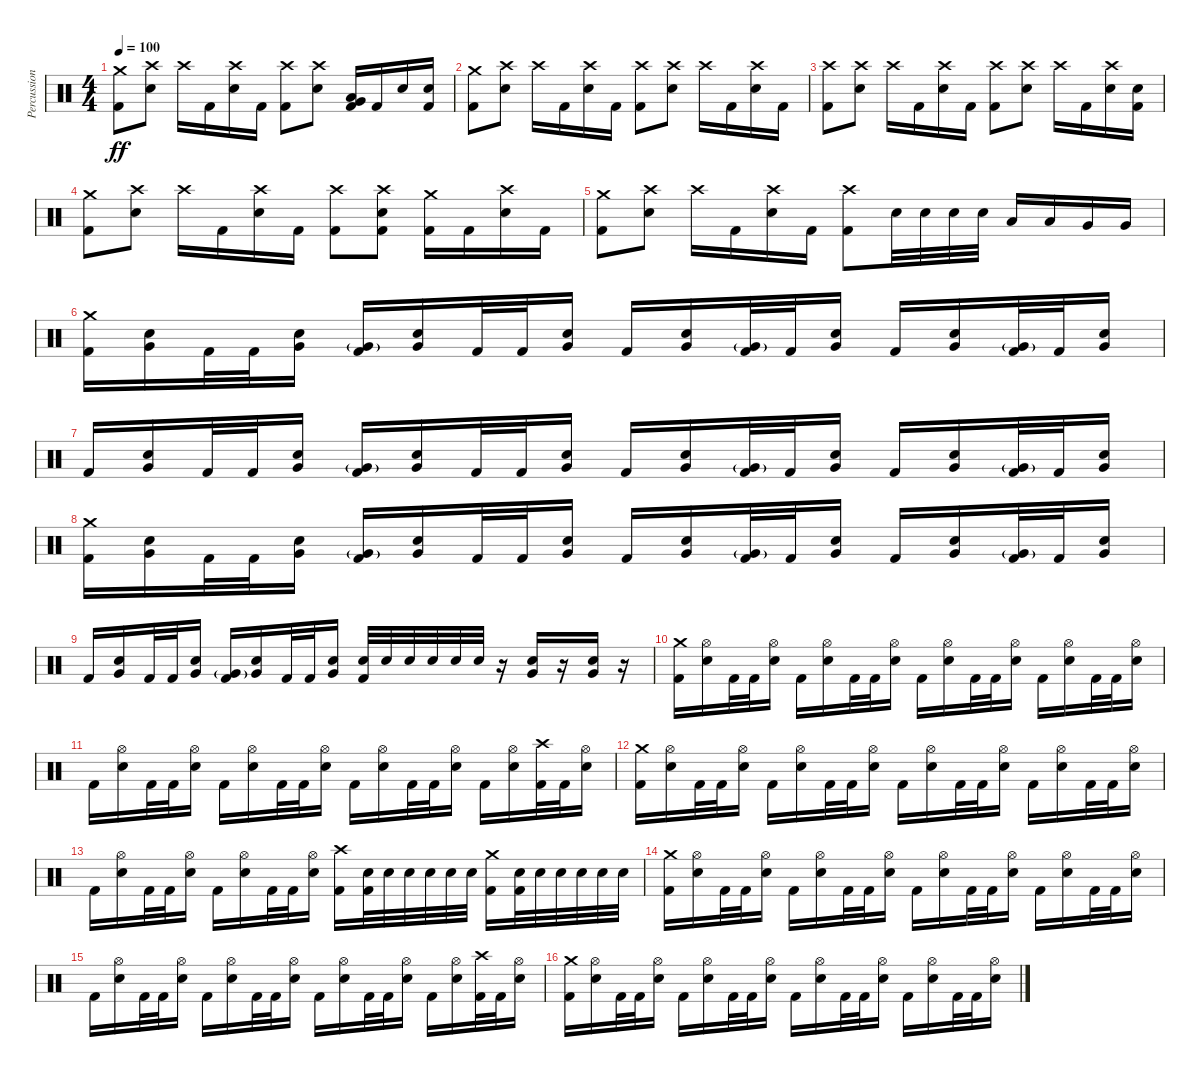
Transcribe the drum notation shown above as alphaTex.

\track ("Percussion" "Percussion") {instrument percussion}
\staff {score}
\articulation defaults
\ts (4 4)
\tempo 100
\clef neutral
\ks c
("Crash medium (hit)" "Kick (hit) 2").8{dy ff} ("Crash high (hit)" "Electric Snare (hit)").8 "Crash high (hit)".16 "Kick (hit) 2".16 ("Crash high (hit)" "Electric Snare (hit)").16 "Kick (hit) 2".16 ("Crash high (hit)" "Kick (hit) 2").8 ("Crash high (hit)" "Electric Snare (hit)").8 ("Low Tom (hit)" "Very Low Tom (hit)" "Kick (hit) 2").16 "Kick (hit) 2".16 "Electric Snare (hit)".16 ("Electric Snare (hit)" "Kick (hit) 2").16 |
("Crash medium (hit)" "Kick (hit) 2").8 ("Crash high (hit)" "Electric Snare (hit)").8 "Crash high (hit)".16 "Kick (hit) 2".16 ("Crash high (hit)" "Electric Snare (hit)").16 "Kick (hit) 2".16 ("Crash high (hit)" "Kick (hit) 2").8 ("Crash high (hit)" "Electric Snare (hit)").8 "Crash high (hit)".16 "Kick (hit) 2".16 ("Crash high (hit)" "Electric Snare (hit)").16 "Kick (hit) 2".16 |
("Crash high (hit)" "Kick (hit) 2").8 ("Crash high (hit)" "Electric Snare (hit)").8 "Crash high (hit)".16 "Kick (hit) 2".16 ("Crash high (hit)" "Electric Snare (hit)").16 "Kick (hit) 2".16 ("Crash high (hit)" "Kick (hit) 2").8 ("Crash high (hit)" "Electric Snare (hit)").8 "Crash high (hit)".16 "Kick (hit) 2".16 ("Crash high (hit)" "Electric Snare (hit)").16 ("Electric Snare (hit)" "Kick (hit) 2").16 |
("Crash medium (hit)" "Kick (hit) 2").8 ("Crash high (hit)" "Electric Snare (hit)").8 "Crash high (hit)".16 "Kick (hit) 2".16 ("Crash high (hit)" "Electric Snare (hit)").16 "Kick (hit) 2".16 ("Crash high (hit)" "Kick (hit) 2").8 ("Crash high (hit)" "Electric Snare (hit)" "Kick (hit) 2").8 ("Crash medium (hit)" "Kick (hit) 2").16 "Kick (hit) 2".16 ("Crash high (hit)" "Electric Snare (hit)").16 "Kick (hit) 2".16 |
("Crash medium (hit)" "Kick (hit) 2").8 ("Crash high (hit)" "Electric Snare (hit)").8 "Crash high (hit)".16 "Kick (hit) 2".16 ("Crash high (hit)" "Electric Snare (hit)").16 "Kick (hit) 2".16 ("Crash high (hit)" "Kick (hit) 2").8 "Electric Snare (hit)".32 "Electric Snare (hit)".32 "Electric Snare (hit)".32 "Electric Snare (hit)".32 "Low Tom (hit)".16 "Low Tom (hit)".16 "Very Low Tom (hit)".16 "Very Low Tom (hit)".16 |
("Crash medium (hit)" "Kick (hit) 2").16 ("Very Low Tom (hit)" "Electric Snare (hit)").16 "Kick (hit) 2".32 "Kick (hit) 2".32 ("Very Low Tom (hit)" "Electric Snare (hit)").16 ("Very Low Tom (hit)"{g} "Kick (hit) 2").16 ("Very Low Tom (hit)" "Electric Snare (hit)").16 "Kick (hit) 2".32 "Kick (hit) 2".32 ("Very Low Tom (hit)" "Electric Snare (hit)").16 "Kick (hit) 2".16 ("Very Low Tom (hit)" "Electric Snare (hit)").16 ("Very Low Tom (hit)"{g} "Kick (hit) 2").32 "Kick (hit) 2".32 ("Very Low Tom (hit)" "Electric Snare (hit)").16 "Kick (hit) 2".16 ("Very Low Tom (hit)" "Electric Snare (hit)").16 ("Very Low Tom (hit)"{g} "Kick (hit) 2").32 "Kick (hit) 2".32 ("Very Low Tom (hit)" "Electric Snare (hit)").16 |
"Kick (hit) 2".16 ("Very Low Tom (hit)" "Electric Snare (hit)").16 "Kick (hit) 2".32 "Kick (hit) 2".32 ("Very Low Tom (hit)" "Electric Snare (hit)").16 ("Very Low Tom (hit)"{g} "Kick (hit) 2").16 ("Very Low Tom (hit)" "Electric Snare (hit)").16 "Kick (hit) 2".32 "Kick (hit) 2".32 ("Very Low Tom (hit)" "Electric Snare (hit)").16 "Kick (hit) 2".16 ("Very Low Tom (hit)" "Electric Snare (hit)").16 ("Very Low Tom (hit)"{g} "Kick (hit) 2").32 "Kick (hit) 2".32 ("Very Low Tom (hit)" "Electric Snare (hit)").16 "Kick (hit) 2".16 ("Very Low Tom (hit)" "Electric Snare (hit)").16 ("Very Low Tom (hit)"{g} "Kick (hit) 2").32 "Kick (hit) 2".32 ("Very Low Tom (hit)" "Electric Snare (hit)").16 |
("Crash medium (hit)" "Kick (hit) 2").16 ("Very Low Tom (hit)" "Electric Snare (hit)").16 "Kick (hit) 2".32 "Kick (hit) 2".32 ("Very Low Tom (hit)" "Electric Snare (hit)").16 ("Very Low Tom (hit)"{g} "Kick (hit) 2").16 ("Very Low Tom (hit)" "Electric Snare (hit)").16 "Kick (hit) 2".32 "Kick (hit) 2".32 ("Very Low Tom (hit)" "Electric Snare (hit)").16 "Kick (hit) 2".16 ("Very Low Tom (hit)" "Electric Snare (hit)").16 ("Very Low Tom (hit)"{g} "Kick (hit) 2").32 "Kick (hit) 2".32 ("Very Low Tom (hit)" "Electric Snare (hit)").16 "Kick (hit) 2".16 ("Very Low Tom (hit)" "Electric Snare (hit)").16 ("Very Low Tom (hit)"{g} "Kick (hit) 2").32 "Kick (hit) 2".32 ("Very Low Tom (hit)" "Electric Snare (hit)").16 |
"Kick (hit) 2".16 ("Very Low Tom (hit)" "Electric Snare (hit)").16 "Kick (hit) 2".32 "Kick (hit) 2".32 ("Very Low Tom (hit)" "Electric Snare (hit)").16 ("Very Low Tom (hit)"{g} "Kick (hit) 2").16 ("Very Low Tom (hit)" "Electric Snare (hit)").16 "Kick (hit) 2".32 "Kick (hit) 2".32 ("Very Low Tom (hit)" "Electric Snare (hit)").16 ("Electric Snare (hit)" "Kick (hit) 2").32 "Electric Snare (hit)".32 "Electric Snare (hit)".32 "Electric Snare (hit)".32 "Electric Snare (hit)".32 "Electric Snare (hit)".32 r.16 ("Electric Snare (hit)" "Very Low Tom (hit)").16 r.16 ("Electric Snare (hit)" "Very Low Tom (hit)").16 r.16 |
("Crash medium (hit)" "Kick (hit) 2").16 ("Hi-Hat (open)" "Electric Snare (hit)").16 "Kick (hit) 2".32 "Kick (hit) 2".32 ("Hi-Hat (open)" "Electric Snare (hit)").16 "Kick (hit) 2".16 ("Hi-Hat (open)" "Electric Snare (hit)").16 "Kick (hit) 2".32 "Kick (hit) 2".32 ("Hi-Hat (open)" "Electric Snare (hit)").16 "Kick (hit) 2".16 ("Hi-Hat (open)" "Electric Snare (hit)").16 "Kick (hit) 2".32 "Kick (hit) 2".32 ("Hi-Hat (open)" "Electric Snare (hit)").16 "Kick (hit) 2".16 ("Hi-Hat (open)" "Electric Snare (hit)").16 "Kick (hit) 2".32 "Kick (hit) 2".32 ("Hi-Hat (open)" "Electric Snare (hit)").16 |
"Kick (hit) 2".16 ("Hi-Hat (open)" "Electric Snare (hit)").16 "Kick (hit) 2".32 "Kick (hit) 2".32 ("Hi-Hat (open)" "Electric Snare (hit)").16 "Kick (hit) 2".16 ("Hi-Hat (open)" "Electric Snare (hit)").16 "Kick (hit) 2".32 "Kick (hit) 2".32 ("Hi-Hat (open)" "Electric Snare (hit)").16 "Kick (hit) 2".16 ("Hi-Hat (open)" "Electric Snare (hit)").16 "Kick (hit) 2".32 "Kick (hit) 2".32 ("Hi-Hat (open)" "Electric Snare (hit)").16 "Kick (hit) 2".16 ("Hi-Hat (open)" "Electric Snare (hit)").16 ("Crash high (hit)" "Kick (hit) 2").32 "Kick (hit) 2".32 ("Hi-Hat (open)" "Electric Snare (hit)").16 |
("Crash medium (hit)" "Kick (hit) 2").16 ("Hi-Hat (open)" "Electric Snare (hit)").16 "Kick (hit) 2".32 "Kick (hit) 2".32 ("Hi-Hat (open)" "Electric Snare (hit)").16 "Kick (hit) 2".16 ("Hi-Hat (open)" "Electric Snare (hit)").16 "Kick (hit) 2".32 "Kick (hit) 2".32 ("Hi-Hat (open)" "Electric Snare (hit)").16 "Kick (hit) 2".16 ("Hi-Hat (open)" "Electric Snare (hit)").16 "Kick (hit) 2".32 "Kick (hit) 2".32 ("Hi-Hat (open)" "Electric Snare (hit)").16 "Kick (hit) 2".16 ("Hi-Hat (open)" "Electric Snare (hit)").16 "Kick (hit) 2".32 "Kick (hit) 2".32 ("Hi-Hat (open)" "Electric Snare (hit)").16 |
"Kick (hit) 2".16 ("Hi-Hat (open)" "Electric Snare (hit)").16 "Kick (hit) 2".32 "Kick (hit) 2".32 ("Hi-Hat (open)" "Electric Snare (hit)").16 "Kick (hit) 2".16 ("Hi-Hat (open)" "Electric Snare (hit)").16 "Kick (hit) 2".32 "Kick (hit) 2".32 ("Hi-Hat (open)" "Electric Snare (hit)").16 ("Crash high (hit)" "Kick (hit) 2").16 ("Electric Snare (hit)" "Kick (hit) 2").32 "Electric Snare (hit)".32 "Electric Snare (hit)".32 "Electric Snare (hit)".32 "Electric Snare (hit)".32 "Electric Snare (hit)".32 ("Crash medium (hit)" "Kick (hit) 2").16 ("Electric Snare (hit)" "Kick (hit) 2").32 "Electric Snare (hit)".32 "Electric Snare (hit)".32 "Electric Snare (hit)".32 "Electric Snare (hit)".32 "Electric Snare (hit)".32 |
("Crash medium (hit)" "Kick (hit) 2").16 ("Hi-Hat (open)" "Electric Snare (hit)").16 "Kick (hit) 2".32 "Kick (hit) 2".32 ("Hi-Hat (open)" "Electric Snare (hit)").16 "Kick (hit) 2".16 ("Hi-Hat (open)" "Electric Snare (hit)").16 "Kick (hit) 2".32 "Kick (hit) 2".32 ("Hi-Hat (open)" "Electric Snare (hit)").16 "Kick (hit) 2".16 ("Hi-Hat (open)" "Electric Snare (hit)").16 "Kick (hit) 2".32 "Kick (hit) 2".32 ("Hi-Hat (open)" "Electric Snare (hit)").16 "Kick (hit) 2".16 ("Hi-Hat (open)" "Electric Snare (hit)").16 "Kick (hit) 2".32 "Kick (hit) 2".32 ("Hi-Hat (open)" "Electric Snare (hit)").16 |
"Kick (hit) 2".16 ("Hi-Hat (open)" "Electric Snare (hit)").16 "Kick (hit) 2".32 "Kick (hit) 2".32 ("Hi-Hat (open)" "Electric Snare (hit)").16 "Kick (hit) 2".16 ("Hi-Hat (open)" "Electric Snare (hit)").16 "Kick (hit) 2".32 "Kick (hit) 2".32 ("Hi-Hat (open)" "Electric Snare (hit)").16 "Kick (hit) 2".16 ("Hi-Hat (open)" "Electric Snare (hit)").16 "Kick (hit) 2".32 "Kick (hit) 2".32 ("Hi-Hat (open)" "Electric Snare (hit)").16 "Kick (hit) 2".16 ("Hi-Hat (open)" "Electric Snare (hit)").16 ("Crash high (hit)" "Kick (hit) 2").32 "Kick (hit) 2".32 ("Hi-Hat (open)" "Electric Snare (hit)").16 |
("Crash medium (hit)" "Kick (hit) 2").16 ("Hi-Hat (open)" "Electric Snare (hit)").16 "Kick (hit) 2".32 "Kick (hit) 2".32 ("Hi-Hat (open)" "Electric Snare (hit)").16 "Kick (hit) 2".16 ("Hi-Hat (open)" "Electric Snare (hit)").16 "Kick (hit) 2".32 "Kick (hit) 2".32 ("Hi-Hat (open)" "Electric Snare (hit)").16 "Kick (hit) 2".16 ("Hi-Hat (open)" "Electric Snare (hit)").16 "Kick (hit) 2".32 "Kick (hit) 2".32 ("Hi-Hat (open)" "Electric Snare (hit)").16 "Kick (hit) 2".16 ("Hi-Hat (open)" "Electric Snare (hit)").16 "Kick (hit) 2".32 "Kick (hit) 2".32 ("Hi-Hat (open)" "Electric Snare (hit)").16
